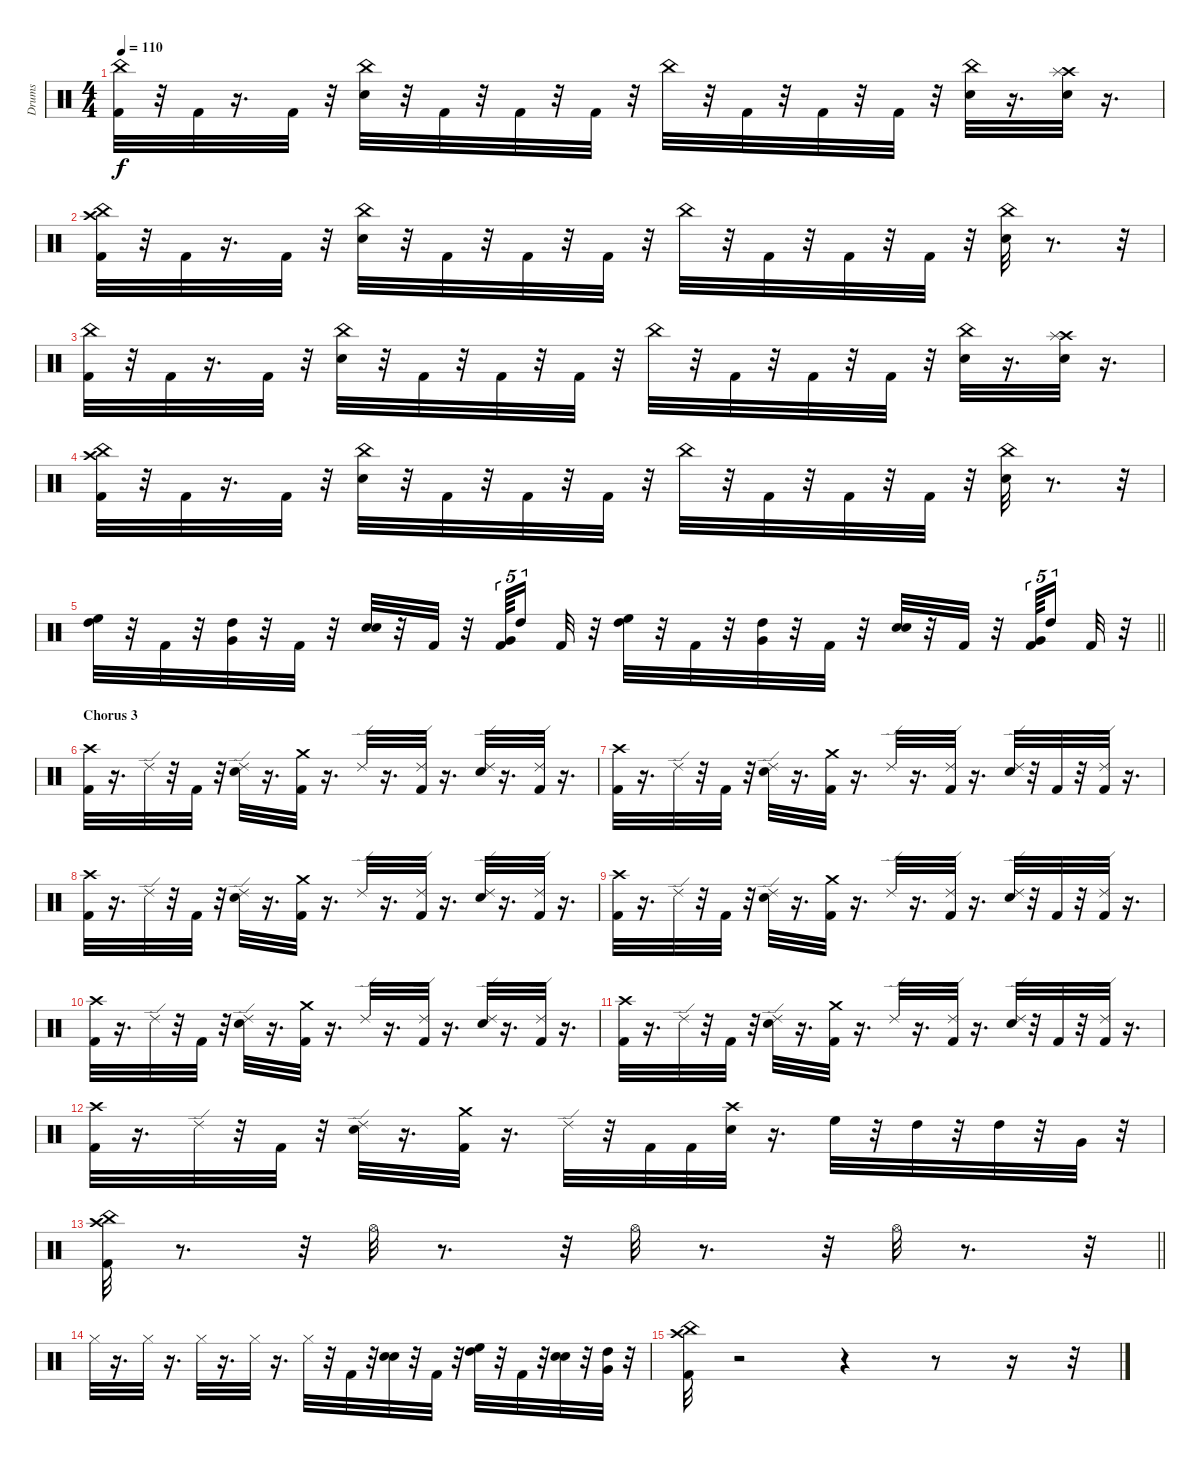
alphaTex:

\track ("Drums" "Drums") {instrument percussion}
\staff {score}
\articulation defaults
\ts (4 4)
\tempo 110
\clef neutral
\ks c
("Kick (hit) 2" "China (hit)").32{dy f} r.32 "Kick (hit) 2".32 r.16{d} "Kick (hit) 2".32 r.32 ("Snare (hit) 2" "China (hit)").32 r.32 "Kick (hit) 2".32 r.32 "Kick (hit) 2".32 r.32 "Kick (hit) 2".32 r.32 "China (hit)".32 r.32 "Kick (hit) 2".32 r.32 "Kick (hit) 2".32 r.32 "Kick (hit) 2".32 r.32 ("Snare (hit) 2" "China (hit)").32 r.16{d} ("Snare (hit) 2" "Crash high (hit)" "Splash (hit)").32 r.16{d} |
("Kick (hit) 2" "Crash high (hit)" "China (hit)").32 r.32 "Kick (hit) 2".32 r.16{d} "Kick (hit) 2".32 r.32 ("Snare (hit) 2" "China (hit)").32 r.32 "Kick (hit) 2".32 r.32 "Kick (hit) 2".32 r.32 "Kick (hit) 2".32 r.32 "China (hit)".32 r.32 "Kick (hit) 2".32 r.32 "Kick (hit) 2".32 r.32 "Kick (hit) 2".32 r.32 ("Snare (hit) 2" "China (hit)").32 r.8{d} r.32 |
("Kick (hit) 2" "China (hit)").32 r.32 "Kick (hit) 2".32 r.16{d} "Kick (hit) 2".32 r.32 ("Snare (hit) 2" "China (hit)").32 r.32 "Kick (hit) 2".32 r.32 "Kick (hit) 2".32 r.32 "Kick (hit) 2".32 r.32 "China (hit)".32 r.32 "Kick (hit) 2".32 r.32 "Kick (hit) 2".32 r.32 "Kick (hit) 2".32 r.32 ("Snare (hit) 2" "China (hit)").32 r.16{d} ("Snare (hit) 2" "Crash high (hit)" "Splash (hit)").32 r.16{d} |
("Kick (hit) 2" "Crash high (hit)" "China (hit)").32 r.32 "Kick (hit) 2".32 r.16{d} "Kick (hit) 2".32 r.32 ("Snare (hit) 2" "China (hit)").32 r.32 "Kick (hit) 2".32 r.32 "Kick (hit) 2".32 r.32 "Kick (hit) 2".32 r.32 "China (hit)".32 r.32 "Kick (hit) 2".32 r.32 "Kick (hit) 2".32 r.32 "Kick (hit) 2".32 r.32 ("Snare (hit) 2" "China (hit)").32 r.8{d} r.32 |
\barLineRight lightlight
("High Floor Tom (hit)" "High Tom (hit)").32 r.32 "Kick (hit) 2".32 r.32 ("High Tom (hit)" "Very Low Tom (hit)").32 r.32 "Kick (hit) 2".32 r.32 ("Snare (hit) 2" "Hand Clap (hit)").32 r.32 "Kick (hit) 2".32 r.32 ("Kick (hit) 2" "Very Low Tom (hit)").64{tu (5 4)} "High Tom (hit)".16{tu (5 4) beam splitsecondary} "Kick (hit) 2".32 r.32 ("High Floor Tom (hit)" "High Tom (hit)").32 r.32 "Kick (hit) 2".32 r.32 ("High Tom (hit)" "Very Low Tom (hit)").32 r.32 "Kick (hit) 2".32 r.32 ("Snare (hit) 2" "Hand Clap (hit)").32 r.32 "Kick (hit) 2".32 r.32 ("Kick (hit) 2" "Very Low Tom (hit)").64{tu (5 4)} "High Tom (hit)".16{tu (5 4) beam splitsecondary} "Kick (hit) 2".32 r.32 |
\section ("" "Chorus 3")
("Kick (hit) 2" "Crash high (hit)").32 r.16{d} "Ride (edge) 2".32 r.32 "Kick (hit) 2".32 r.32 ("Snare (hit) 2" "Ride (edge) 2").32 r.16{d} ("Kick (hit) 2" "Crash medium (hit)").32 r.16{d} "Ride (edge) 2".32 r.16{d} ("Kick (hit) 2" "Ride (edge) 2").32 r.16{d} ("Snare (hit) 2" "Ride (edge) 2").32 r.16{d} ("Kick (hit) 2" "Ride (edge) 2").32 r.16{d} |
("Kick (hit) 2" "Crash high (hit)").32 r.16{d} "Ride (edge) 2".32 r.32 "Kick (hit) 2".32 r.32 ("Snare (hit) 2" "Ride (edge) 2").32 r.16{d} ("Kick (hit) 2" "Crash medium (hit)").32 r.16{d} "Ride (edge) 2".32 r.16{d} ("Kick (hit) 2" "Ride (edge) 2").32 r.16{d} ("Snare (hit) 2" "Ride (edge) 2").32 r.32 "Kick (hit) 2".32 r.32 ("Kick (hit) 2" "Ride (edge) 2").32 r.16{d} |
("Kick (hit) 2" "Crash high (hit)").32 r.16{d} "Ride (edge) 2".32 r.32 "Kick (hit) 2".32 r.32 ("Snare (hit) 2" "Ride (edge) 2").32 r.16{d} ("Kick (hit) 2" "Crash medium (hit)").32 r.16{d} "Ride (edge) 2".32 r.16{d} ("Kick (hit) 2" "Ride (edge) 2").32 r.16{d} ("Snare (hit) 2" "Ride (edge) 2").32 r.16{d} ("Kick (hit) 2" "Ride (edge) 2").32 r.16{d} |
("Kick (hit) 2" "Crash high (hit)").32 r.16{d} "Ride (edge) 2".32 r.32 "Kick (hit) 2".32 r.32 ("Snare (hit) 2" "Ride (edge) 2").32 r.16{d} ("Kick (hit) 2" "Crash medium (hit)").32 r.16{d} "Ride (edge) 2".32 r.16{d} ("Kick (hit) 2" "Ride (edge) 2").32 r.16{d} ("Snare (hit) 2" "Ride (edge) 2").32 r.32 "Kick (hit) 2".32 r.32 ("Kick (hit) 2" "Ride (edge) 2").32 r.16{d} |
("Kick (hit) 2" "Crash high (hit)").32 r.16{d} "Ride (edge) 2".32 r.32 "Kick (hit) 2".32 r.32 ("Snare (hit) 2" "Ride (edge) 2").32 r.16{d} ("Kick (hit) 2" "Crash medium (hit)").32 r.16{d} "Ride (edge) 2".32 r.16{d} ("Kick (hit) 2" "Ride (edge) 2").32 r.16{d} ("Snare (hit) 2" "Ride (edge) 2").32 r.16{d} ("Kick (hit) 2" "Ride (edge) 2").32 r.16{d} |
("Kick (hit) 2" "Crash high (hit)").32 r.16{d} "Ride (edge) 2".32 r.32 "Kick (hit) 2".32 r.32 ("Snare (hit) 2" "Ride (edge) 2").32 r.16{d} ("Kick (hit) 2" "Crash medium (hit)").32 r.16{d} "Ride (edge) 2".32 r.16{d} ("Kick (hit) 2" "Ride (edge) 2").32 r.16{d} ("Snare (hit) 2" "Ride (edge) 2").32 r.32 "Kick (hit) 2".32 r.32 ("Kick (hit) 2" "Ride (edge) 2").32 r.16{d} |
("Kick (hit) 2" "Crash high (hit)").32 r.16{d} "Ride (edge) 2".32 r.32 "Kick (hit) 2".32 r.32 ("Snare (hit) 2" "Ride (edge) 2").32 r.16{d} ("Kick (hit) 2" "Crash medium (hit)").32 r.16{d} "Ride (edge) 2".32 r.32 "Kick (hit) 2".32 "Kick (hit) 2".32 ("Snare (hit) 2" "Crash high (hit)").32 r.16{d} "High Floor Tom (hit)".32 r.32 "High Tom (hit)".32 r.32 "High Tom (hit)".32 r.32 "Very Low Tom (hit)".32 r.32 |
\barLineRight lightlight
("Kick (hit) 2" "Crash high (hit)" "China (hit)").32 r.8{d} r.32 "Hi-Hat (open)".32 r.8{d} r.32 "Hi-Hat (open)".32 r.8{d} r.32 "Hi-Hat (open)".32 r.8{d} r.32 |
"Hi-Hat (closed)".32 r.16{d} "Hi-Hat (closed)".32 r.16{d} "Hi-Hat (closed)".32 r.16{d} "Hi-Hat (closed)".32 r.16{d} "Hi-Hat (closed)".32 r.32 "Kick (hit) 2".32 r.32 ("Snare (hit) 2" "Hand Clap (hit)").32 r.32 "Kick (hit) 2".32 r.32 ("High Floor Tom (hit)" "High Tom (hit)").32 r.32 "Kick (hit) 2".32 r.32 ("Snare (hit) 2" "Hand Clap (hit)").32 r.32 ("Very Low Tom (hit)" "High Tom (hit)").32 r.32 |
("Kick (hit) 2" "Crash high (hit)" "China (hit)").32 r.2 r.4 r.8 r.16 r.32
